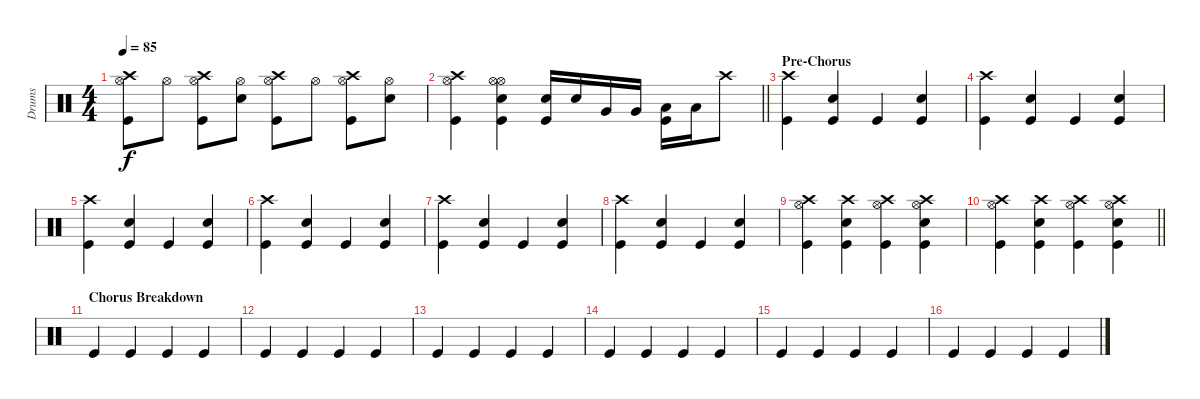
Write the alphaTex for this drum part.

\track ("Drums" "Drums") {instrument percussion}
\staff {score}
\articulation defaults
\ts (4 4)
\tempo 85
\clef neutral
\ks c
("Crash high (hit)" "Hi-Hat (open)" "Kick (hit)").8{dy f} "Hi-Hat (open)".8 ("Crash high (hit)" "Hi-Hat (open)" "Kick (hit)").8 ("Hi-Hat (open)" "Snare (hit) 2").8 ("Crash high (hit)" "Hi-Hat (open)" "Kick (hit)").8 "Hi-Hat (open)".8 ("Crash high (hit)" "Hi-Hat (open)" "Kick (hit)").8 ("Hi-Hat (open)" "Snare (hit) 2").8 |
\barLineRight lightlight
("Crash high (hit)" "Hi-Hat (open)" "Kick (hit)").4 ("Hi-Hat (open)" "Hi-Hat (open)" "Snare (hit) 2" "Kick (hit)").4 ("Snare (hit) 2" "Kick (hit)").16 "Snare (hit) 2".16 "Very Low Tom (hit)".16 "Very Low Tom (hit)".16 ("Low Tom (hit)" "Kick (hit)").16 "Low Tom (hit)".16 "Crash high (hit)".8 |
\section ("" "Pre-Chorus")
("Crash high (hit)" "Kick (hit)").4 ("Snare (hit) 2" "Kick (hit)").4 "Kick (hit)".4 ("Snare (hit) 2" "Kick (hit)").4 |
("Crash high (hit)" "Kick (hit)").4 ("Snare (hit) 2" "Kick (hit)").4 "Kick (hit)".4 ("Snare (hit) 2" "Kick (hit)").4 |
("Crash high (hit)" "Kick (hit)").4 ("Snare (hit) 2" "Kick (hit)").4 "Kick (hit)".4 ("Snare (hit) 2" "Kick (hit)").4 |
("Crash high (hit)" "Kick (hit)").4 ("Snare (hit) 2" "Kick (hit)").4 "Kick (hit)".4 ("Snare (hit) 2" "Kick (hit)").4 |
("Crash high (hit)" "Kick (hit)").4 ("Snare (hit) 2" "Kick (hit)").4 "Kick (hit)".4 ("Snare (hit) 2" "Kick (hit)").4 |
("Crash high (hit)" "Kick (hit)").4 ("Snare (hit) 2" "Kick (hit)").4 "Kick (hit)".4 ("Snare (hit) 2" "Kick (hit)").4 |
("Crash high (hit)" "Hi-Hat (open)" "Kick (hit)").4 ("Crash high (hit)" "Snare (hit) 2" "Kick (hit)").4 ("Crash high (hit)" "Hi-Hat (open)" "Kick (hit)").4 ("Crash high (hit)" "Hi-Hat (open)" "Snare (hit) 2" "Kick (hit)").4 |
\barLineRight lightlight
("Crash high (hit)" "Hi-Hat (open)" "Kick (hit)").4 ("Crash high (hit)" "Snare (hit) 2" "Kick (hit)").4 ("Crash high (hit)" "Hi-Hat (open)" "Kick (hit)").4 ("Crash high (hit)" "Hi-Hat (open)" "Snare (hit) 2" "Kick (hit)").4 |
\section ("" "Chorus Breakdown")
"Kick (hit)".4 "Kick (hit)".4 "Kick (hit)".4 "Kick (hit)".4 |
"Kick (hit)".4 "Kick (hit)".4 "Kick (hit)".4 "Kick (hit)".4 |
"Kick (hit)".4 "Kick (hit)".4 "Kick (hit)".4 "Kick (hit)".4 |
"Kick (hit)".4 "Kick (hit)".4 "Kick (hit)".4 "Kick (hit)".4 |
"Kick (hit)".4 "Kick (hit)".4 "Kick (hit)".4 "Kick (hit)".4 |
"Kick (hit)".4 "Kick (hit)".4 "Kick (hit)".4 "Kick (hit)".4
